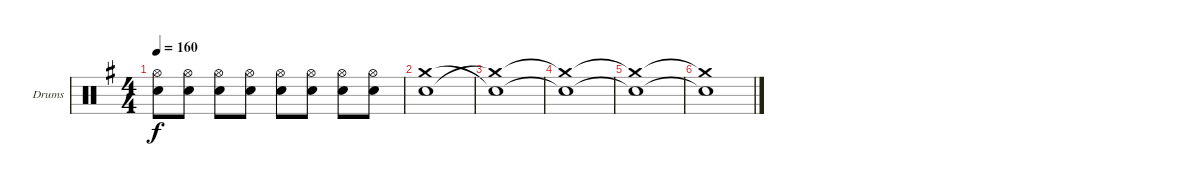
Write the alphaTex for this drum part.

\bracketExtendMode groupsimilarinstruments
\firstSystemTrackNameOrientation horizontal
\otherSystemsTrackNameOrientation horizontal
\track ("Fabrizio Moretti" "Drums") {instrument percussion}
\staff {score}
\articulation defaults
\ts (4 4)
\tempo 160
\clef neutral
\ks g
("Hi-Hat (open)" "Snare (hit) 2").8{dy f} ("Hi-Hat (open)" "Snare (hit) 2").8 ("Hi-Hat (open)" "Snare (hit) 2").8 ("Hi-Hat (open)" "Snare (hit) 2").8 ("Hi-Hat (open)" "Snare (hit) 2").8 ("Hi-Hat (open)" "Snare (hit) 2").8 ("Hi-Hat (open)" "Snare (hit) 2").8 ("Hi-Hat (open)" "Snare (hit) 2").8 |
("Crash medium (hit)" "Snare (hit) 2").1 |
("Snare (hit) 2"{t} "Crash medium (hit)"{t}).1 |
("Snare (hit) 2"{t} "Crash medium (hit)"{t}).1 |
("Snare (hit) 2"{t} "Crash medium (hit)"{t}).1 |
("Snare (hit) 2"{t} "Crash medium (hit)"{t}).1
